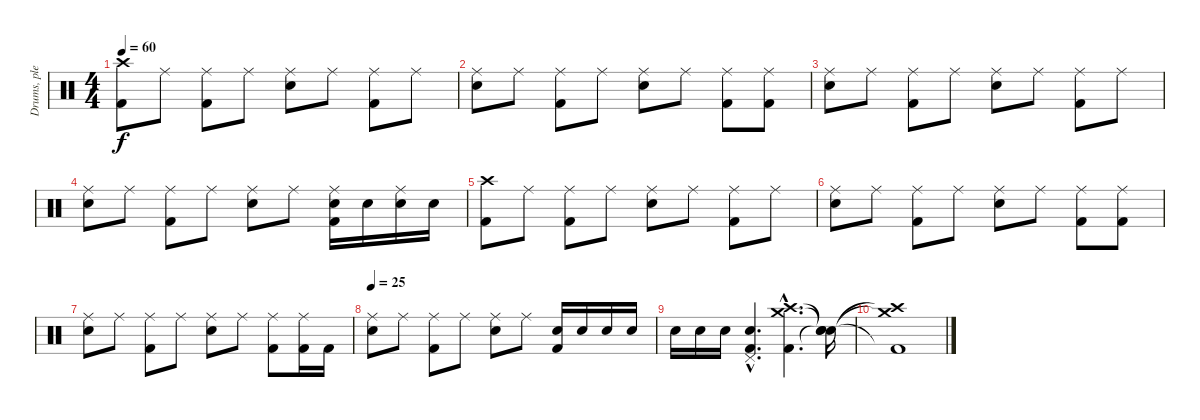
\track ("Drums, please" "Drums, ple") {instrument percussion}
\staff {score}
\articulation defaults
\ts (4 4)
\tempo 60
\clef neutral
\ks c
("Kick (hit) 2" "Crash high (hit)").8{dy f} "Ride (middle)".8 ("Kick (hit) 2" "Ride (middle)").8 "Ride (middle)".8 ("Electric Snare (hit)" "Ride (middle)").8 "Ride (middle)".8 ("Kick (hit) 2" "Ride (middle)").8 "Ride (middle)".8 |
("Electric Snare (hit)" "Ride (middle)").8 "Ride (middle)".8 ("Kick (hit) 2" "Ride (middle)").8 "Ride (middle)".8 ("Electric Snare (hit)" "Ride (middle)").8 "Ride (middle)".8 ("Kick (hit) 2" "Ride (middle)").8 ("Kick (hit) 2" "Ride (middle)").8 |
("Electric Snare (hit)" "Ride (middle)").8 "Ride (middle)".8 ("Kick (hit) 2" "Ride (middle)").8 "Ride (middle)".8 ("Electric Snare (hit)" "Ride (middle)").8 "Ride (middle)".8 ("Kick (hit) 2" "Ride (middle)").8 "Ride (middle)".8 |
("Electric Snare (hit)" "Ride (middle)").8 "Ride (middle)".8 ("Kick (hit) 2" "Ride (middle)").8 "Ride (middle)".8 ("Electric Snare (hit)" "Ride (middle)").8 "Ride (middle)".8 ("Kick (hit) 2" "Electric Snare (hit)" "Ride (middle)").16 "Electric Snare (hit)".16 ("Electric Snare (hit)" "Ride (middle)").16 "Electric Snare (hit)".16 |
("Kick (hit) 2" "Crash high (hit)").8 "Ride (middle)".8 ("Kick (hit) 2" "Ride (middle)").8 "Ride (middle)".8 ("Electric Snare (hit)" "Ride (middle)").8 "Ride (middle)".8 ("Kick (hit) 2" "Ride (middle)").8 "Ride (middle)".8 |
("Electric Snare (hit)" "Ride (middle)").8 "Ride (middle)".8 ("Kick (hit) 2" "Ride (middle)").8 "Ride (middle)".8 ("Electric Snare (hit)" "Ride (middle)").8 "Ride (middle)".8 ("Kick (hit) 2" "Ride (middle)").8 ("Kick (hit) 2" "Ride (middle)").8 |
("Electric Snare (hit)" "Ride (middle)").8 "Ride (middle)".8 ("Kick (hit) 2" "Ride (middle)").8 "Ride (middle)".8 ("Electric Snare (hit)" "Ride (middle)").8 "Ride (middle)".8 ("Kick (hit) 2" "Ride (middle)").8 ("Kick (hit) 2" "Ride (middle)").16 "Kick (hit) 2".16 |
\tempo 25
("Electric Snare (hit)" "Ride (middle)").8 "Ride (middle)".8 ("Kick (hit) 2" "Ride (middle)").8 "Ride (middle)".8 ("Electric Snare (hit)" "Ride (middle)").8 "Ride (middle)".8 ("Kick (hit) 2" "Electric Snare (hit)").16 "Electric Snare (hit)".16 "Electric Snare (hit)".16 "Electric Snare (hit)".16 |
"Electric Snare (hit)".16 "Electric Snare (hit)".16 "Electric Snare (hit)".16 ("Kick (hit) 2"{hac} "Electric Snare (hit)"{hac} "Pedal Hi-Hat (hit)"{hac}).4{d} ("Kick (hit) 2"{hac} "Crash medium (hit)"{hac} "Crash high (hit)"{hac}).4{d} ("Snare (hit)"{t} "Snare (hit)"{t} "Snare (hit)"{t}).16 |
("Kick (hit) 2"{t} "Crash medium (hit)"{t} "Crash high (hit)"{t}).1
